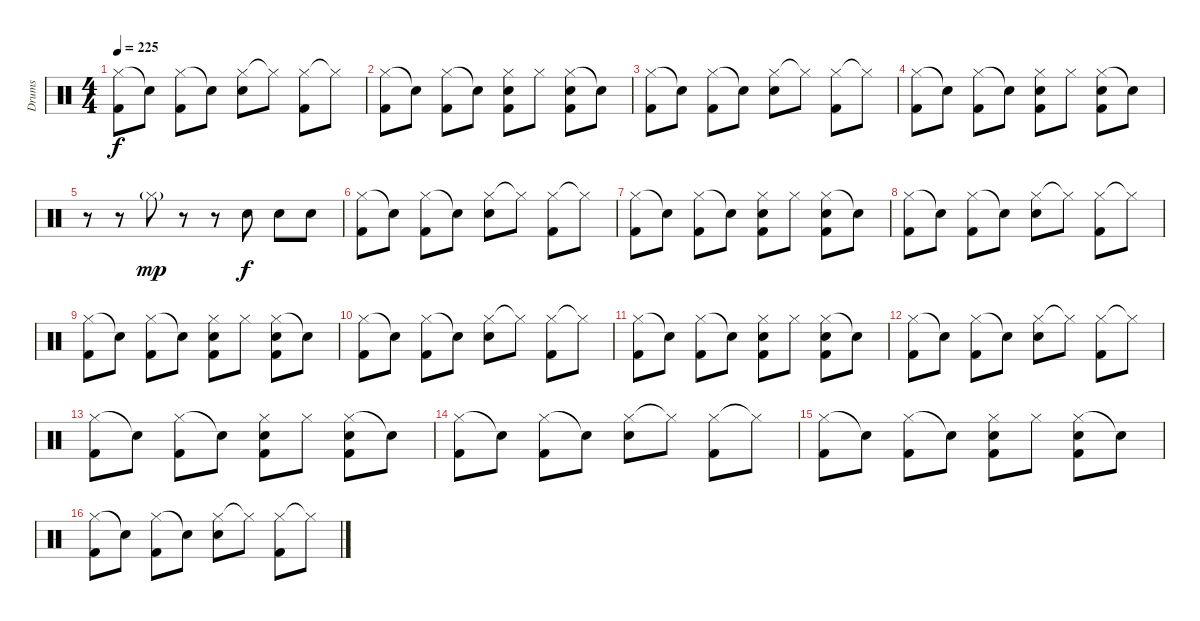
\track ("Drums" "Drums") {instrument percussion}
\staff {score}
\articulation defaults
\ts (4 4)
\tempo 225
\clef neutral
\ks c
("Hi-Hat (closed)" "Kick (hit) 2").8{dy f} "Snare (hit)"{t}.8 ("Hi-Hat (closed)" "Kick (hit) 2").8 "Snare (hit)"{t}.8 ("Hi-Hat (closed)" "Snare (hit) 2").8 "Hi-Hat (closed)"{t}.8 ("Hi-Hat (closed)" "Kick (hit) 2").8 "Hi-Hat (closed)"{t}.8 |
("Hi-Hat (closed)" "Kick (hit) 2").8 "Snare (hit)"{t}.8 ("Hi-Hat (closed)" "Kick (hit) 2").8 "Snare (hit)"{t}.8 ("Hi-Hat (closed)" "Snare (hit) 2" "Kick (hit) 2").8 "Hi-Hat (closed)".8 ("Hi-Hat (closed)" "Snare (hit) 2" "Kick (hit) 2").8 "Snare (hit)"{t}.8 |
("Hi-Hat (closed)" "Kick (hit) 2").8 "Snare (hit)"{t}.8 ("Hi-Hat (closed)" "Kick (hit) 2").8 "Snare (hit)"{t}.8 ("Hi-Hat (closed)" "Snare (hit) 2").8 "Hi-Hat (closed)"{t}.8 ("Hi-Hat (closed)" "Kick (hit) 2").8 "Hi-Hat (closed)"{t}.8 |
("Hi-Hat (closed)" "Kick (hit) 2").8 "Snare (hit)"{t}.8 ("Hi-Hat (closed)" "Kick (hit) 2").8 "Snare (hit)"{t}.8 ("Hi-Hat (closed)" "Snare (hit) 2" "Kick (hit) 2").8 "Hi-Hat (closed)".8 ("Hi-Hat (closed)" "Snare (hit) 2" "Kick (hit) 2").8 "Snare (hit)"{t}.8 |
r.8 r.8 "Hi-Hat (closed)"{g}.8{dy mp} r.8 r.8 "Snare (hit) 2".8{dy f} "Snare (hit) 2".8 "Snare (hit) 2".8 |
("Hi-Hat (closed)" "Kick (hit) 2").8 "Snare (hit)"{t}.8 ("Hi-Hat (closed)" "Kick (hit) 2").8 "Snare (hit)"{t}.8 ("Hi-Hat (closed)" "Snare (hit) 2").8 "Hi-Hat (closed)"{t}.8 ("Hi-Hat (closed)" "Kick (hit) 2").8 "Hi-Hat (closed)"{t}.8 |
("Hi-Hat (closed)" "Kick (hit) 2").8 "Snare (hit)"{t}.8 ("Hi-Hat (closed)" "Kick (hit) 2").8 "Snare (hit)"{t}.8 ("Hi-Hat (closed)" "Snare (hit) 2" "Kick (hit) 2").8 "Hi-Hat (closed)".8 ("Hi-Hat (closed)" "Snare (hit) 2" "Kick (hit) 2").8 "Snare (hit)"{t}.8 |
("Hi-Hat (closed)" "Kick (hit) 2").8 "Snare (hit)"{t}.8 ("Hi-Hat (closed)" "Kick (hit) 2").8 "Snare (hit)"{t}.8 ("Hi-Hat (closed)" "Snare (hit) 2").8 "Hi-Hat (closed)"{t}.8 ("Hi-Hat (closed)" "Kick (hit) 2").8 "Hi-Hat (closed)"{t}.8 |
("Hi-Hat (closed)" "Kick (hit) 2").8 "Snare (hit)"{t}.8 ("Hi-Hat (closed)" "Kick (hit) 2").8 "Snare (hit)"{t}.8 ("Hi-Hat (closed)" "Snare (hit) 2" "Kick (hit) 2").8 "Hi-Hat (closed)".8 ("Hi-Hat (closed)" "Snare (hit) 2" "Kick (hit) 2").8 "Snare (hit)"{t}.8 |
("Hi-Hat (closed)" "Kick (hit) 2").8 "Snare (hit)"{t}.8 ("Hi-Hat (closed)" "Kick (hit) 2").8 "Snare (hit)"{t}.8 ("Hi-Hat (closed)" "Snare (hit) 2").8 "Hi-Hat (closed)"{t}.8 ("Hi-Hat (closed)" "Kick (hit) 2").8 "Hi-Hat (closed)"{t}.8 |
("Hi-Hat (closed)" "Kick (hit) 2").8 "Snare (hit)"{t}.8 ("Hi-Hat (closed)" "Kick (hit) 2").8 "Snare (hit)"{t}.8 ("Hi-Hat (closed)" "Snare (hit) 2" "Kick (hit) 2").8 "Hi-Hat (closed)".8 ("Hi-Hat (closed)" "Snare (hit) 2" "Kick (hit) 2").8 "Snare (hit)"{t}.8 |
("Hi-Hat (closed)" "Kick (hit) 2").8 "Snare (hit)"{t}.8 ("Hi-Hat (closed)" "Kick (hit) 2").8 "Snare (hit)"{t}.8 ("Hi-Hat (closed)" "Snare (hit) 2").8 "Hi-Hat (closed)"{t}.8 ("Hi-Hat (closed)" "Kick (hit) 2").8 "Hi-Hat (closed)"{t}.8 |
("Hi-Hat (closed)" "Kick (hit) 2").8 "Snare (hit)"{t}.8 ("Hi-Hat (closed)" "Kick (hit) 2").8 "Snare (hit)"{t}.8 ("Hi-Hat (closed)" "Snare (hit) 2" "Kick (hit) 2").8 "Hi-Hat (closed)".8 ("Hi-Hat (closed)" "Snare (hit) 2" "Kick (hit) 2").8 "Snare (hit)"{t}.8 |
("Hi-Hat (closed)" "Kick (hit) 2").8 "Snare (hit)"{t}.8 ("Hi-Hat (closed)" "Kick (hit) 2").8 "Snare (hit)"{t}.8 ("Hi-Hat (closed)" "Snare (hit) 2").8 "Hi-Hat (closed)"{t}.8 ("Hi-Hat (closed)" "Kick (hit) 2").8 "Hi-Hat (closed)"{t}.8 |
("Hi-Hat (closed)" "Kick (hit) 2").8 "Snare (hit)"{t}.8 ("Hi-Hat (closed)" "Kick (hit) 2").8 "Snare (hit)"{t}.8 ("Hi-Hat (closed)" "Snare (hit) 2" "Kick (hit) 2").8 "Hi-Hat (closed)".8 ("Hi-Hat (closed)" "Snare (hit) 2" "Kick (hit) 2").8 "Snare (hit)"{t}.8 |
("Hi-Hat (closed)" "Kick (hit) 2").8 "Snare (hit)"{t}.8 ("Hi-Hat (closed)" "Kick (hit) 2").8 "Snare (hit)"{t}.8 ("Hi-Hat (closed)" "Snare (hit) 2").8 "Hi-Hat (closed)"{t}.8 ("Hi-Hat (closed)" "Kick (hit) 2").8 "Hi-Hat (closed)"{t}.8
